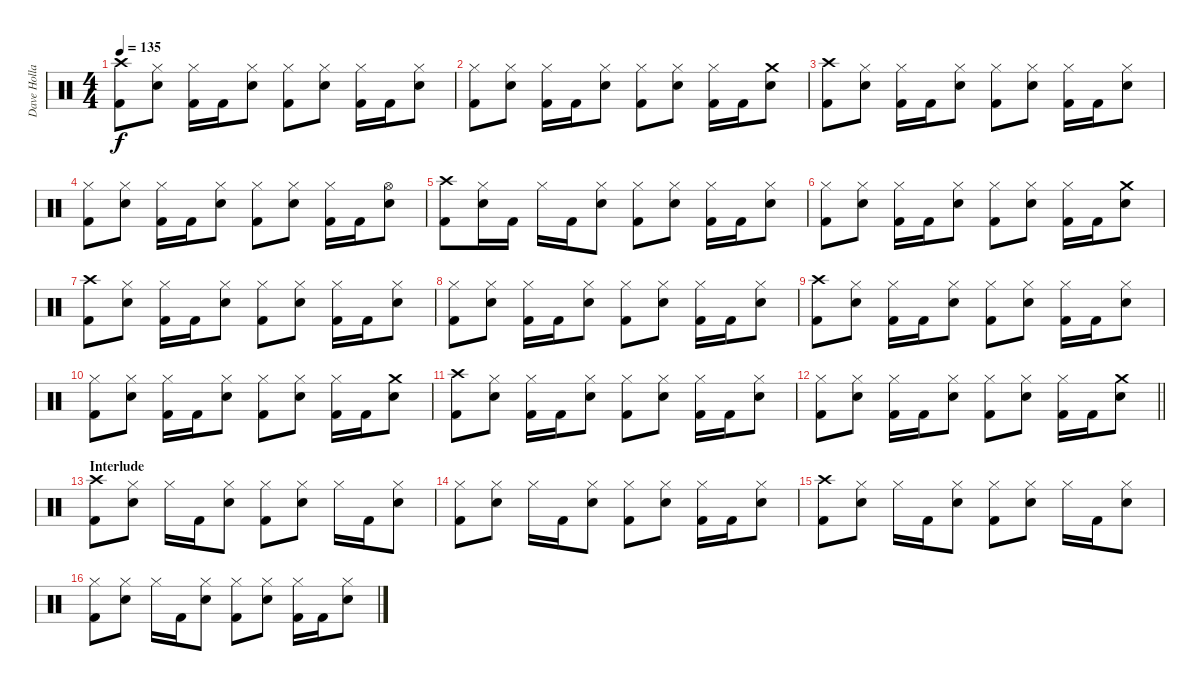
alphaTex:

\track ("Dave Holland" "Dave Holla") {instrument percussion}
\staff {score}
\articulation defaults
\ts (4 4)
\tempo 135
\clef neutral
\ks c
("Crash high (hit)" "Kick (hit) 2").8{dy f} ("Hi-Hat (closed)" "Snare (hit) 2").8 ("Hi-Hat (closed)" "Kick (hit) 2").16 "Kick (hit) 2".16 ("Hi-Hat (closed)" "Snare (hit) 2").8 ("Hi-Hat (closed)" "Kick (hit) 2").8 ("Hi-Hat (closed)" "Snare (hit) 2").8 ("Hi-Hat (closed)" "Kick (hit) 2").16 "Kick (hit) 2".16 ("Hi-Hat (closed)" "Snare (hit) 2").8 |
("Hi-Hat (closed)" "Kick (hit) 2").8 ("Hi-Hat (closed)" "Snare (hit) 2").8 ("Hi-Hat (closed)" "Kick (hit) 2").16 "Kick (hit) 2".16 ("Hi-Hat (closed)" "Snare (hit) 2").8 ("Hi-Hat (closed)" "Kick (hit) 2").8 ("Hi-Hat (closed)" "Snare (hit) 2").8 ("Hi-Hat (closed)" "Kick (hit) 2").16 "Kick (hit) 2".16 ("Crash medium (hit)" "Snare (hit) 2").8 |
("Crash high (hit)" "Kick (hit) 2").8 ("Hi-Hat (closed)" "Snare (hit) 2").8 ("Hi-Hat (closed)" "Kick (hit) 2").16 "Kick (hit) 2".16 ("Hi-Hat (closed)" "Snare (hit) 2").8 ("Hi-Hat (closed)" "Kick (hit) 2").8 ("Hi-Hat (closed)" "Snare (hit) 2").8 ("Hi-Hat (closed)" "Kick (hit) 2").16 "Kick (hit) 2".16 ("Hi-Hat (closed)" "Snare (hit) 2").8 |
("Hi-Hat (closed)" "Kick (hit) 2").8 ("Hi-Hat (closed)" "Snare (hit) 2").8 ("Hi-Hat (closed)" "Kick (hit) 2").16 "Kick (hit) 2".16 ("Hi-Hat (closed)" "Snare (hit) 2").8 ("Hi-Hat (closed)" "Kick (hit) 2").8 ("Hi-Hat (closed)" "Snare (hit) 2").8 ("Hi-Hat (closed)" "Kick (hit) 2").16 "Kick (hit) 2".16 ("Hi-Hat (open)" "Snare (hit) 2").8 |
("Crash high (hit)" "Kick (hit) 2").8 ("Hi-Hat (closed)" "Snare (hit) 2").16 "Kick (hit) 2".16 "Hi-Hat (closed)".16 "Kick (hit) 2".16 ("Hi-Hat (closed)" "Snare (hit) 2").8 ("Hi-Hat (closed)" "Kick (hit) 2").8 ("Hi-Hat (closed)" "Snare (hit) 2").8 ("Hi-Hat (closed)" "Kick (hit) 2").16 "Kick (hit) 2".16 ("Hi-Hat (closed)" "Snare (hit) 2").8 |
("Hi-Hat (closed)" "Kick (hit) 2").8 ("Hi-Hat (closed)" "Snare (hit) 2").8 ("Hi-Hat (closed)" "Kick (hit) 2").16 "Kick (hit) 2".16 ("Hi-Hat (closed)" "Snare (hit) 2").8 ("Hi-Hat (closed)" "Kick (hit) 2").8 ("Hi-Hat (closed)" "Snare (hit) 2").8 ("Hi-Hat (closed)" "Kick (hit) 2").16 "Kick (hit) 2".16 ("Crash medium (hit)" "Snare (hit) 2").8 |
("Crash high (hit)" "Kick (hit) 2").8 ("Hi-Hat (closed)" "Snare (hit) 2").8 ("Hi-Hat (closed)" "Kick (hit) 2").16 "Kick (hit) 2".16 ("Hi-Hat (closed)" "Snare (hit) 2").8 ("Hi-Hat (closed)" "Kick (hit) 2").8 ("Hi-Hat (closed)" "Snare (hit) 2").8 ("Hi-Hat (closed)" "Kick (hit) 2").16 "Kick (hit) 2".16 ("Hi-Hat (closed)" "Snare (hit) 2").8 |
("Hi-Hat (closed)" "Kick (hit) 2").8 ("Hi-Hat (closed)" "Snare (hit) 2").8 ("Hi-Hat (closed)" "Kick (hit) 2").16 "Kick (hit) 2".16 ("Hi-Hat (closed)" "Snare (hit) 2").8 ("Hi-Hat (closed)" "Kick (hit) 2").8 ("Hi-Hat (closed)" "Snare (hit) 2").8 ("Hi-Hat (closed)" "Kick (hit) 2").16 "Kick (hit) 2".16 ("Hi-Hat (closed)" "Snare (hit) 2").8 |
("Crash high (hit)" "Kick (hit) 2").8 ("Hi-Hat (closed)" "Snare (hit) 2").8 ("Hi-Hat (closed)" "Kick (hit) 2").16 "Kick (hit) 2".16 ("Hi-Hat (closed)" "Snare (hit) 2").8 ("Hi-Hat (closed)" "Kick (hit) 2").8 ("Hi-Hat (closed)" "Snare (hit) 2").8 ("Hi-Hat (closed)" "Kick (hit) 2").16 "Kick (hit) 2".16 ("Hi-Hat (closed)" "Snare (hit) 2").8 |
("Hi-Hat (closed)" "Kick (hit) 2").8 ("Hi-Hat (closed)" "Snare (hit) 2").8 ("Hi-Hat (closed)" "Kick (hit) 2").16 "Kick (hit) 2".16 ("Hi-Hat (closed)" "Snare (hit) 2").8 ("Hi-Hat (closed)" "Kick (hit) 2").8 ("Hi-Hat (closed)" "Snare (hit) 2").8 ("Hi-Hat (closed)" "Kick (hit) 2").16 "Kick (hit) 2".16 ("Crash medium (hit)" "Snare (hit) 2").8 |
("Crash high (hit)" "Kick (hit) 2").8 ("Hi-Hat (closed)" "Snare (hit) 2").8 ("Hi-Hat (closed)" "Kick (hit) 2").16 "Kick (hit) 2".16 ("Hi-Hat (closed)" "Snare (hit) 2").8 ("Hi-Hat (closed)" "Kick (hit) 2").8 ("Hi-Hat (closed)" "Snare (hit) 2").8 ("Hi-Hat (closed)" "Kick (hit) 2").16 "Kick (hit) 2".16 ("Hi-Hat (closed)" "Snare (hit) 2").8 |
\barLineRight lightlight
("Hi-Hat (closed)" "Kick (hit) 2").8 ("Hi-Hat (closed)" "Snare (hit) 2").8 ("Hi-Hat (closed)" "Kick (hit) 2").16 "Kick (hit) 2".16 ("Hi-Hat (closed)" "Snare (hit) 2").8 ("Hi-Hat (closed)" "Kick (hit) 2").8 ("Hi-Hat (closed)" "Snare (hit) 2").8 ("Hi-Hat (closed)" "Kick (hit) 2").16 "Kick (hit) 2".16 ("Crash medium (hit)" "Snare (hit) 2").8 |
\section ("" "Interlude")
("Crash high (hit)" "Kick (hit) 2").8 ("Hi-Hat (closed)" "Snare (hit) 2").8 "Hi-Hat (closed)".16 "Kick (hit) 2".16 ("Hi-Hat (closed)" "Snare (hit) 2").8 ("Hi-Hat (closed)" "Kick (hit) 2").8 ("Hi-Hat (closed)" "Snare (hit) 2").8 "Hi-Hat (closed)".16 "Kick (hit) 2".16 ("Hi-Hat (closed)" "Snare (hit) 2").8 |
("Hi-Hat (closed)" "Kick (hit) 2").8 ("Hi-Hat (closed)" "Snare (hit) 2").8 "Hi-Hat (closed)".16 "Kick (hit) 2".16 ("Hi-Hat (closed)" "Snare (hit) 2").8 ("Hi-Hat (closed)" "Kick (hit) 2").8 ("Hi-Hat (closed)" "Snare (hit) 2").8 ("Hi-Hat (closed)" "Kick (hit) 2").16 "Kick (hit) 2".16 ("Hi-Hat (closed)" "Snare (hit) 2").8 |
("Crash high (hit)" "Kick (hit) 2").8 ("Hi-Hat (closed)" "Snare (hit) 2").8 "Hi-Hat (closed)".16 "Kick (hit) 2".16 ("Hi-Hat (closed)" "Snare (hit) 2").8 ("Hi-Hat (closed)" "Kick (hit) 2").8 ("Hi-Hat (closed)" "Snare (hit) 2").8 "Hi-Hat (closed)".16 "Kick (hit) 2".16 ("Hi-Hat (closed)" "Snare (hit) 2").8 |
("Hi-Hat (closed)" "Kick (hit) 2").8 ("Hi-Hat (closed)" "Snare (hit) 2").8 "Hi-Hat (closed)".16 "Kick (hit) 2".16 ("Hi-Hat (closed)" "Snare (hit) 2").8 ("Hi-Hat (closed)" "Kick (hit) 2").8 ("Hi-Hat (closed)" "Snare (hit) 2").8 ("Hi-Hat (closed)" "Kick (hit) 2").16 "Kick (hit) 2".16 ("Hi-Hat (closed)" "Snare (hit) 2").8
